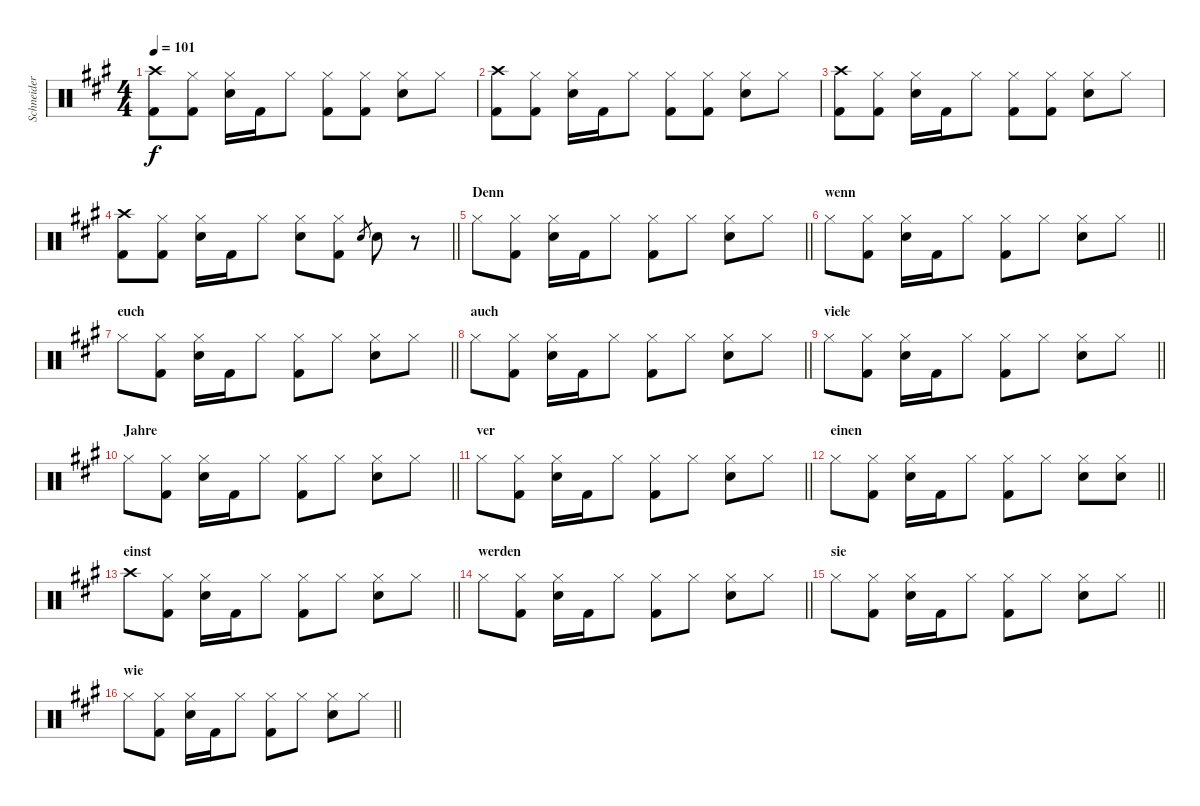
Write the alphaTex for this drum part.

\track ("Schneider" "Schneider") {instrument percussion}
\staff {score}
\articulation defaults
\ts (4 4)
\tempo 101
\clef neutral
\ks f#minor
("Crash high (hit)" "Kick (hit) 2").8{dy f} ("Hi-Hat (closed)" "Kick (hit) 2").8 ("Hi-Hat (closed)" "Snare (hit) 2").16 "Kick (hit) 2".16 "Hi-Hat (closed)".8 ("Hi-Hat (closed)" "Kick (hit) 2").8 ("Hi-Hat (closed)" "Kick (hit) 2").8 ("Hi-Hat (closed)" "Snare (hit) 2").8 "Hi-Hat (closed)".8 |
("Crash high (hit)" "Kick (hit) 2").8 ("Hi-Hat (closed)" "Kick (hit) 2").8 ("Hi-Hat (closed)" "Snare (hit) 2").16 "Kick (hit) 2".16 "Hi-Hat (closed)".8 ("Hi-Hat (closed)" "Kick (hit) 2").8 ("Hi-Hat (closed)" "Kick (hit) 2").8 ("Hi-Hat (closed)" "Snare (hit) 2").8 "Hi-Hat (closed)".8 |
("Crash high (hit)" "Kick (hit) 2").8 ("Hi-Hat (closed)" "Kick (hit) 2").8 ("Hi-Hat (closed)" "Snare (hit) 2").16 "Kick (hit) 2".16 "Hi-Hat (closed)".8 ("Hi-Hat (closed)" "Kick (hit) 2").8 ("Hi-Hat (closed)" "Kick (hit) 2").8 ("Hi-Hat (closed)" "Snare (hit) 2").8 "Hi-Hat (closed)".8 |
\barLineRight lightlight
("Crash high (hit)" "Kick (hit) 2").8 ("Hi-Hat (closed)" "Kick (hit) 2").8 ("Hi-Hat (closed)" "Snare (hit) 2").16 "Kick (hit) 2".16 "Hi-Hat (closed)".8 ("Hi-Hat (closed)" "Snare (hit) 2").8 ("Hi-Hat (closed)" "Kick (hit) 2").8 "Snare (hit) 2".8{gr} "Snare (hit) 2".8 r.8 |
\section ("" "Denn")
\barLineRight lightlight "Hi-Hat (closed)".8
("Hi-Hat (closed)" "Kick (hit) 2").8 ("Hi-Hat (closed)" "Snare (hit) 2").16 "Kick (hit) 2".16 "Hi-Hat (closed)".8 ("Hi-Hat (closed)" "Kick (hit) 2").8 "Hi-Hat (closed)".8 ("Hi-Hat (closed)" "Snare (hit) 2").8 "Hi-Hat (closed)".8 |
\section ("" "wenn")
\barLineRight lightlight "Hi-Hat (closed)".8
("Hi-Hat (closed)" "Kick (hit) 2").8 ("Hi-Hat (closed)" "Snare (hit) 2").16 "Kick (hit) 2".16 "Hi-Hat (closed)".8 ("Hi-Hat (closed)" "Kick (hit) 2").8 "Hi-Hat (closed)".8 ("Hi-Hat (closed)" "Snare (hit) 2").8 "Hi-Hat (closed)".8 |
\section ("" "euch")
\barLineRight lightlight "Hi-Hat (closed)".8
("Hi-Hat (closed)" "Kick (hit) 2").8 ("Hi-Hat (closed)" "Snare (hit) 2").16 "Kick (hit) 2".16 "Hi-Hat (closed)".8 ("Hi-Hat (closed)" "Kick (hit) 2").8 "Hi-Hat (closed)".8 ("Hi-Hat (closed)" "Snare (hit) 2").8 "Hi-Hat (closed)".8 |
\section ("" "auch")
\barLineRight lightlight "Hi-Hat (closed)".8
("Hi-Hat (closed)" "Kick (hit) 2").8 ("Hi-Hat (closed)" "Snare (hit) 2").16 "Kick (hit) 2".16 "Hi-Hat (closed)".8 ("Hi-Hat (closed)" "Kick (hit) 2").8 "Hi-Hat (closed)".8 ("Hi-Hat (closed)" "Snare (hit) 2").8 "Hi-Hat (closed)".8 |
\section ("" "viele")
\barLineRight lightlight "Hi-Hat (closed)".8
("Hi-Hat (closed)" "Kick (hit) 2").8 ("Hi-Hat (closed)" "Snare (hit) 2").16 "Kick (hit) 2".16 "Hi-Hat (closed)".8 ("Hi-Hat (closed)" "Kick (hit) 2").8 "Hi-Hat (closed)".8 ("Hi-Hat (closed)" "Snare (hit) 2").8 "Hi-Hat (closed)".8 |
\section ("" "Jahre")
\barLineRight lightlight "Hi-Hat (closed)".8
("Hi-Hat (closed)" "Kick (hit) 2").8 ("Hi-Hat (closed)" "Snare (hit) 2").16 "Kick (hit) 2".16 "Hi-Hat (closed)".8 ("Hi-Hat (closed)" "Kick (hit) 2").8 "Hi-Hat (closed)".8 ("Hi-Hat (closed)" "Snare (hit) 2").8 "Hi-Hat (closed)".8 |
\section ("" "ver")
\barLineRight lightlight "Hi-Hat (closed)".8
("Hi-Hat (closed)" "Kick (hit) 2").8 ("Hi-Hat (closed)" "Snare (hit) 2").16 "Kick (hit) 2".16 "Hi-Hat (closed)".8 ("Hi-Hat (closed)" "Kick (hit) 2").8 "Hi-Hat (closed)".8 ("Hi-Hat (closed)" "Snare (hit) 2").8 "Hi-Hat (closed)".8 |
\section ("" "einen")
\barLineRight lightlight "Hi-Hat (closed)".8
("Hi-Hat (closed)" "Kick (hit) 2").8 ("Hi-Hat (closed)" "Snare (hit) 2").16 "Kick (hit) 2".16 "Hi-Hat (closed)".8 ("Hi-Hat (closed)" "Kick (hit) 2").8 "Hi-Hat (closed)".8 ("Hi-Hat (closed)" "Snare (hit) 2").8 ("Hi-Hat (closed)" "Snare (hit) 2").8 |
\section ("" "einst")
\barLineRight lightlight "Crash high (hit)".8
("Hi-Hat (closed)" "Kick (hit) 2").8 ("Hi-Hat (closed)" "Snare (hit) 2").16 "Kick (hit) 2".16 "Hi-Hat (closed)".8 ("Hi-Hat (closed)" "Kick (hit) 2").8 "Hi-Hat (closed)".8 ("Hi-Hat (closed)" "Snare (hit) 2").8 "Hi-Hat (closed)".8 |
\section ("" "werden")
\barLineRight lightlight "Hi-Hat (closed)".8
("Hi-Hat (closed)" "Kick (hit) 2").8 ("Hi-Hat (closed)" "Snare (hit) 2").16 "Kick (hit) 2".16 "Hi-Hat (closed)".8 ("Hi-Hat (closed)" "Kick (hit) 2").8 "Hi-Hat (closed)".8 ("Hi-Hat (closed)" "Snare (hit) 2").8 "Hi-Hat (closed)".8 |
\section ("" "sie")
\barLineRight lightlight "Hi-Hat (closed)".8
("Hi-Hat (closed)" "Kick (hit) 2").8 ("Hi-Hat (closed)" "Snare (hit) 2").16 "Kick (hit) 2".16 "Hi-Hat (closed)".8 ("Hi-Hat (closed)" "Kick (hit) 2").8 "Hi-Hat (closed)".8 ("Hi-Hat (closed)" "Snare (hit) 2").8 "Hi-Hat (closed)".8 |
\section ("" "wie")
\barLineRight lightlight "Hi-Hat (closed)".8
("Hi-Hat (closed)" "Kick (hit) 2").8 ("Hi-Hat (closed)" "Snare (hit) 2").16 "Kick (hit) 2".16 "Hi-Hat (closed)".8 ("Hi-Hat (closed)" "Kick (hit) 2").8 "Hi-Hat (closed)".8 ("Hi-Hat (closed)" "Snare (hit) 2").8 "Hi-Hat (closed)".8
